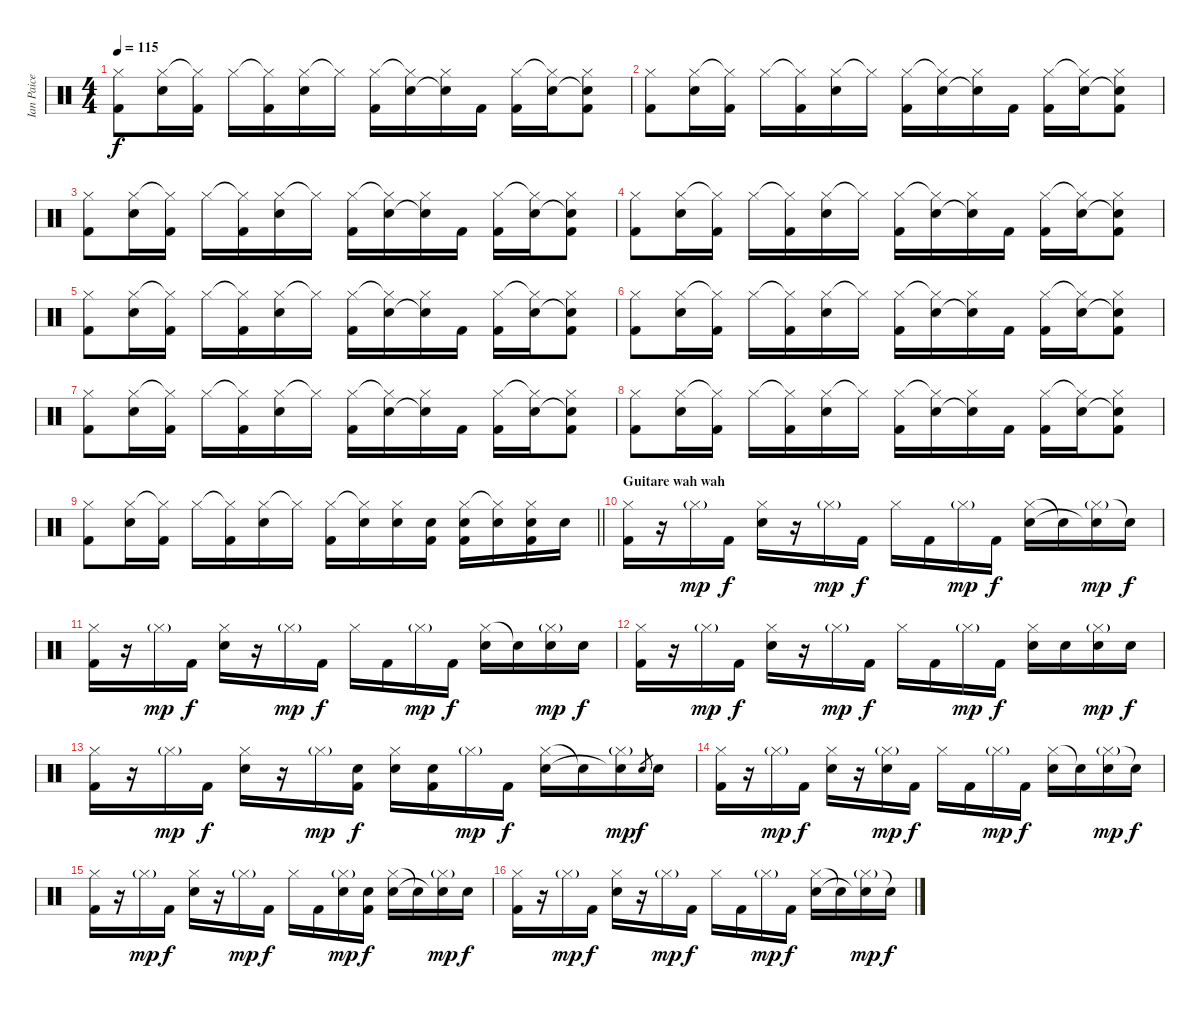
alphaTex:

\track ("Ian Paice" "Ian Paice") {instrument percussion}
\staff {score}
\articulation defaults
\ts (4 4)
\tempo 115
\clef neutral
\ks c
("Hi-Hat (closed)" "Kick (hit) 2").8{dy f} ("Hi-Hat (closed)" "Snare (hit) 2").16 ("Hi-Hat (closed)"{t} "Kick (hit) 2").16 "Hi-Hat (closed)".16 ("Hi-Hat (closed)"{t} "Kick (hit) 2").16 ("Hi-Hat (closed)" "Snare (hit) 2").16 "Hi-Hat (closed)"{t}.16 ("Hi-Hat (closed)" "Kick (hit) 2").16 ("Hi-Hat (closed)"{t} "Snare (hit) 2").16 ("Hi-Hat (closed)" "Snare (hit) 2"{t}).16 "Kick (hit) 2".16 ("Hi-Hat (closed)" "Kick (hit) 2").16 ("Hi-Hat (closed)"{t} "Snare (hit) 2").16 ("Hi-Hat (closed)" "Snare (hit) 2"{t} "Kick (hit) 2").8 |
("Hi-Hat (closed)" "Kick (hit) 2").8 ("Hi-Hat (closed)" "Snare (hit) 2").16 ("Hi-Hat (closed)"{t} "Kick (hit) 2").16 "Hi-Hat (closed)".16 ("Hi-Hat (closed)"{t} "Kick (hit) 2").16 ("Hi-Hat (closed)" "Snare (hit) 2").16 "Hi-Hat (closed)"{t}.16 ("Hi-Hat (closed)" "Kick (hit) 2").16 ("Hi-Hat (closed)"{t} "Snare (hit) 2").16 ("Hi-Hat (closed)" "Snare (hit) 2"{t}).16 "Kick (hit) 2".16 ("Hi-Hat (closed)" "Kick (hit) 2").16 ("Hi-Hat (closed)"{t} "Snare (hit) 2").16 ("Hi-Hat (closed)" "Snare (hit) 2"{t} "Kick (hit) 2").8 |
("Hi-Hat (closed)" "Kick (hit) 2").8 ("Hi-Hat (closed)" "Snare (hit) 2").16 ("Hi-Hat (closed)"{t} "Kick (hit) 2").16 "Hi-Hat (closed)".16 ("Hi-Hat (closed)"{t} "Kick (hit) 2").16 ("Hi-Hat (closed)" "Snare (hit) 2").16 "Hi-Hat (closed)"{t}.16 ("Hi-Hat (closed)" "Kick (hit) 2").16 ("Hi-Hat (closed)"{t} "Snare (hit) 2").16 ("Hi-Hat (closed)" "Snare (hit) 2"{t}).16 "Kick (hit) 2".16 ("Hi-Hat (closed)" "Kick (hit) 2").16 ("Hi-Hat (closed)"{t} "Snare (hit) 2").16 ("Hi-Hat (closed)" "Snare (hit) 2"{t} "Kick (hit) 2").8 |
("Hi-Hat (closed)" "Kick (hit) 2").8 ("Hi-Hat (closed)" "Snare (hit) 2").16 ("Hi-Hat (closed)"{t} "Kick (hit) 2").16 "Hi-Hat (closed)".16 ("Hi-Hat (closed)"{t} "Kick (hit) 2").16 ("Hi-Hat (closed)" "Snare (hit) 2").16 "Hi-Hat (closed)"{t}.16 ("Hi-Hat (closed)" "Kick (hit) 2").16 ("Hi-Hat (closed)"{t} "Snare (hit) 2").16 ("Hi-Hat (closed)" "Snare (hit) 2"{t}).16 "Kick (hit) 2".16 ("Hi-Hat (closed)" "Kick (hit) 2").16 ("Hi-Hat (closed)"{t} "Snare (hit) 2").16 ("Hi-Hat (closed)" "Snare (hit) 2"{t} "Kick (hit) 2").8 |
("Hi-Hat (closed)" "Kick (hit) 2").8 ("Hi-Hat (closed)" "Snare (hit) 2").16 ("Hi-Hat (closed)"{t} "Kick (hit) 2").16 "Hi-Hat (closed)".16 ("Hi-Hat (closed)"{t} "Kick (hit) 2").16 ("Hi-Hat (closed)" "Snare (hit) 2").16 "Hi-Hat (closed)"{t}.16 ("Hi-Hat (closed)" "Kick (hit) 2").16 ("Hi-Hat (closed)"{t} "Snare (hit) 2").16 ("Hi-Hat (closed)" "Snare (hit) 2"{t}).16 "Kick (hit) 2".16 ("Hi-Hat (closed)" "Kick (hit) 2").16 ("Hi-Hat (closed)"{t} "Snare (hit) 2").16 ("Hi-Hat (closed)" "Snare (hit) 2"{t} "Kick (hit) 2").8 |
("Hi-Hat (closed)" "Kick (hit) 2").8 ("Hi-Hat (closed)" "Snare (hit) 2").16 ("Hi-Hat (closed)"{t} "Kick (hit) 2").16 "Hi-Hat (closed)".16 ("Hi-Hat (closed)"{t} "Kick (hit) 2").16 ("Hi-Hat (closed)" "Snare (hit) 2").16 "Hi-Hat (closed)"{t}.16 ("Hi-Hat (closed)" "Kick (hit) 2").16 ("Hi-Hat (closed)"{t} "Snare (hit) 2").16 ("Hi-Hat (closed)" "Snare (hit) 2"{t}).16 "Kick (hit) 2".16 ("Hi-Hat (closed)" "Kick (hit) 2").16 ("Hi-Hat (closed)"{t} "Snare (hit) 2").16 ("Hi-Hat (closed)" "Snare (hit) 2"{t} "Kick (hit) 2").8 |
("Hi-Hat (closed)" "Kick (hit) 2").8 ("Hi-Hat (closed)" "Snare (hit) 2").16 ("Hi-Hat (closed)"{t} "Kick (hit) 2").16 "Hi-Hat (closed)".16 ("Hi-Hat (closed)"{t} "Kick (hit) 2").16 ("Hi-Hat (closed)" "Snare (hit) 2").16 "Hi-Hat (closed)"{t}.16 ("Hi-Hat (closed)" "Kick (hit) 2").16 ("Hi-Hat (closed)"{t} "Snare (hit) 2").16 ("Hi-Hat (closed)" "Snare (hit) 2"{t}).16 "Kick (hit) 2".16 ("Hi-Hat (closed)" "Kick (hit) 2").16 ("Hi-Hat (closed)"{t} "Snare (hit) 2").16 ("Hi-Hat (closed)" "Snare (hit) 2"{t} "Kick (hit) 2").8 |
("Hi-Hat (closed)" "Kick (hit) 2").8 ("Hi-Hat (closed)" "Snare (hit) 2").16 ("Hi-Hat (closed)"{t} "Kick (hit) 2").16 "Hi-Hat (closed)".16 ("Hi-Hat (closed)"{t} "Kick (hit) 2").16 ("Hi-Hat (closed)" "Snare (hit) 2").16 "Hi-Hat (closed)"{t}.16 ("Hi-Hat (closed)" "Kick (hit) 2").16 ("Hi-Hat (closed)"{t} "Snare (hit) 2").16 ("Hi-Hat (closed)" "Snare (hit) 2"{t}).16 "Kick (hit) 2".16 ("Hi-Hat (closed)" "Kick (hit) 2").16 ("Hi-Hat (closed)"{t} "Snare (hit) 2").16 ("Hi-Hat (closed)" "Snare (hit) 2"{t} "Kick (hit) 2").8 |
\barLineRight lightlight
("Hi-Hat (closed)" "Kick (hit) 2").8 ("Hi-Hat (closed)" "Snare (hit) 2").16 ("Hi-Hat (closed)"{t} "Kick (hit) 2").16 "Hi-Hat (closed)".16 ("Hi-Hat (closed)"{t} "Kick (hit) 2").16 ("Hi-Hat (closed)" "Snare (hit) 2").16 "Hi-Hat (closed)"{t}.16 ("Hi-Hat (closed)" "Kick (hit) 2").16 ("Hi-Hat (closed)"{t} "Snare (hit) 2").16 ("Hi-Hat (closed)" "Snare (hit) 2").16 ("Snare (hit) 2" "Kick (hit) 2").16 ("Hi-Hat (closed)" "Snare (hit) 2" "Kick (hit) 2").16 ("Hi-Hat (closed)"{t} "Snare (hit) 2").16 ("Hi-Hat (closed)" "Snare (hit) 2" "Kick (hit) 2").16 "Snare (hit) 2".16 |
\section ("" "Guitare wah wah")
("Hi-Hat (closed)" "Kick (hit) 2").16 r.16 "Hi-Hat (closed)"{g}.16{dy mp} "Kick (hit) 2".16{dy f} ("Hi-Hat (closed)" "Snare (hit) 2").16 r.16 "Hi-Hat (closed)"{g}.16{dy mp} "Kick (hit) 2".16{dy f} "Hi-Hat (closed)".16 "Kick (hit) 2".16 "Hi-Hat (closed)"{g}.16{dy mp} "Kick (hit) 2".16{dy f} ("Hi-Hat (closed)" "Snare (hit) 2").16 "Snare (hit) 2"{t}.16 ("Hi-Hat (closed)"{g} "Snare (hit) 2"{t}).16{dy mp} "Snare (hit) 2"{t}.16{dy f} |
("Hi-Hat (closed)" "Kick (hit) 2").16 r.16 "Hi-Hat (closed)"{g}.16{dy mp} "Kick (hit) 2".16{dy f} ("Hi-Hat (closed)" "Snare (hit) 2").16 r.16 "Hi-Hat (closed)"{g}.16{dy mp} "Kick (hit) 2".16{dy f} "Hi-Hat (closed)".16 "Kick (hit) 2".16 "Hi-Hat (closed)"{g}.16{dy mp} "Kick (hit) 2".16{dy f} ("Hi-Hat (closed)" "Snare (hit) 2").16 "Snare (hit) 2"{t}.16 ("Hi-Hat (closed)"{g} "Snare (hit) 2").16{dy mp} "Snare (hit) 2".16{dy f} |
("Hi-Hat (closed)" "Kick (hit) 2").16 r.16 "Hi-Hat (closed)"{g}.16{dy mp} "Kick (hit) 2".16{dy f} ("Hi-Hat (closed)" "Snare (hit) 2").16 r.16 "Hi-Hat (closed)"{g}.16{dy mp} "Kick (hit) 2".16{dy f} "Hi-Hat (closed)".16 "Kick (hit) 2".16 "Hi-Hat (closed)"{g}.16{dy mp} "Kick (hit) 2".16{dy f} ("Hi-Hat (closed)" "Snare (hit) 2").16 "Snare (hit) 2".16 ("Hi-Hat (closed)"{g} "Snare (hit) 2").16{dy mp} "Snare (hit) 2".16{dy f} |
("Hi-Hat (closed)" "Kick (hit) 2").16 r.16 "Hi-Hat (closed)"{g}.16{dy mp} "Kick (hit) 2".16{dy f} ("Hi-Hat (closed)" "Snare (hit) 2").16 r.16 "Hi-Hat (closed)"{g}.16{dy mp} ("Snare (hit) 2" "Kick (hit) 2").16{dy f} ("Hi-Hat (closed)" "Snare (hit) 2").16 ("Snare (hit) 2" "Kick (hit) 2").16 "Hi-Hat (closed)"{g}.16{dy mp} "Kick (hit) 2".16{dy f} ("Hi-Hat (closed)" "Snare (hit) 2").16 "Snare (hit) 2"{t}.16 ("Hi-Hat (closed)"{g} "Snare (hit) 2"{t}).16{dy mp} "Snare (hit) 2".8{gr dy f} "Snare (hit) 2".16 |
("Hi-Hat (closed)" "Kick (hit) 2").16 r.16 "Hi-Hat (closed)"{g}.16{dy mp} "Kick (hit) 2".16{dy f} ("Hi-Hat (closed)" "Snare (hit) 2").16 r.16 ("Hi-Hat (closed)"{g} "Snare (hit) 2").16{dy mp} "Kick (hit) 2".16{dy f} "Hi-Hat (closed)".16 "Kick (hit) 2".16 "Hi-Hat (closed)"{g}.16{dy mp} "Kick (hit) 2".16{dy f} ("Hi-Hat (closed)" "Snare (hit) 2").16 "Snare (hit) 2"{t}.16 ("Hi-Hat (closed)"{g} "Snare (hit) 2").16{dy mp} "Snare (hit) 2"{t}.16{dy f} |
("Hi-Hat (closed)" "Kick (hit) 2").16 r.16 "Hi-Hat (closed)"{g}.16{dy mp} "Kick (hit) 2".16{dy f} ("Hi-Hat (closed)" "Snare (hit) 2").16 r.16 "Hi-Hat (closed)"{g}.16{dy mp} "Kick (hit) 2".16{dy f} "Hi-Hat (closed)".16 "Kick (hit) 2".16 ("Hi-Hat (closed)"{g} "Snare (hit) 2").16{dy mp} ("Snare (hit) 2" "Kick (hit) 2").16{dy f} ("Hi-Hat (closed)" "Snare (hit) 2").16 "Snare (hit) 2"{t}.16 ("Hi-Hat (closed)"{g} "Snare (hit) 2"{t}).16{dy mp} "Snare (hit) 2".16{dy f} |
("Hi-Hat (closed)" "Kick (hit) 2").16 r.16 "Hi-Hat (closed)"{g}.16{dy mp} "Kick (hit) 2".16{dy f} ("Hi-Hat (closed)" "Snare (hit) 2").16 r.16 "Hi-Hat (closed)"{g}.16{dy mp} "Kick (hit) 2".16{dy f} "Hi-Hat (closed)".16 "Kick (hit) 2".16 "Hi-Hat (closed)"{g}.16{dy mp} "Kick (hit) 2".16{dy f} ("Hi-Hat (closed)" "Snare (hit) 2").16 "Snare (hit) 2"{t}.16 ("Hi-Hat (closed)"{g} "Snare (hit) 2"{t}).16{dy mp} "Snare (hit) 2"{t}.16{dy f}
